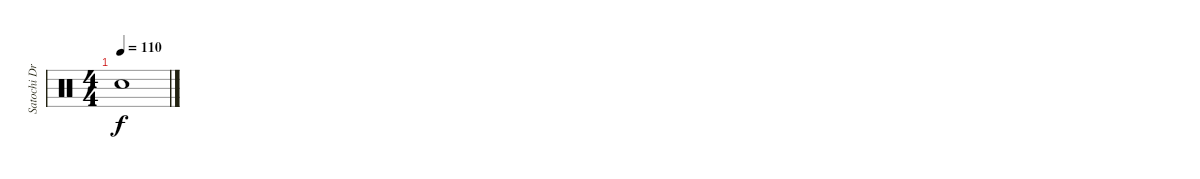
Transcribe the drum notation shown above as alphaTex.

\track ("Satochi Drums" "Satochi Dr") {instrument percussion}
\staff {score}
\articulation defaults
\ts (4 4)
\tempo 110
\clef neutral
\ks c "Snare (hit)"{t}.1{dy f}
